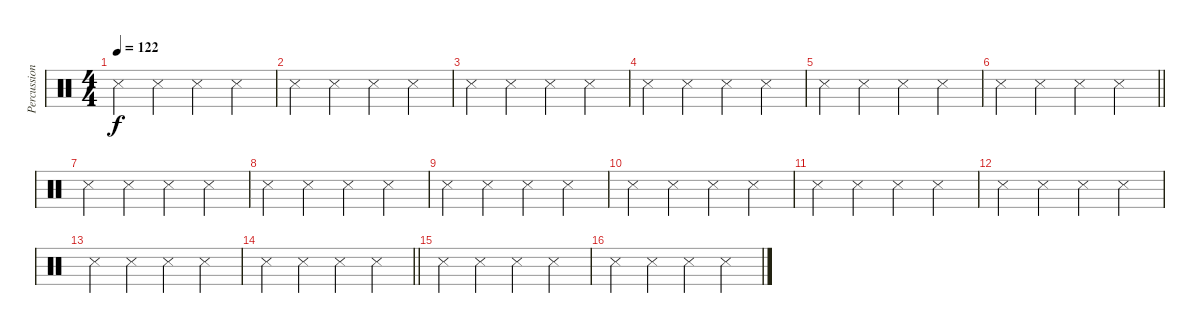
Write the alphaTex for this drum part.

\track ("Percussion" "Percussion") {instrument percussion}
\staff {score}
\articulation defaults
\ts (4 4)
\tempo 122
\clef neutral
\ks c "Snare (side stick) 3".4{dy f} "Metronome (hit)".4 "Metronome (hit)".4 "Metronome (hit)".4
|
"Snare (side stick) 3".4 "Metronome (hit)".4 "Metronome (hit)".4 "Metronome (hit)".4 |
"Snare (side stick) 3".4 "Metronome (hit)".4 "Metronome (hit)".4 "Metronome (hit)".4 |
"Snare (side stick) 3".4 "Metronome (hit)".4 "Metronome (hit)".4 "Metronome (hit)".4 |
"Snare (side stick) 3".4 "Metronome (hit)".4 "Metronome (hit)".4 "Metronome (hit)".4 |
\barLineRight lightlight "Snare (side stick) 3".4 "Metronome (hit)".4 "Metronome (hit)".4 "Metronome (hit)".4
|
"Snare (side stick) 3".4 "Metronome (hit)".4 "Metronome (hit)".4 "Metronome (hit)".4 |
"Snare (side stick) 3".4 "Metronome (hit)".4 "Metronome (hit)".4 "Metronome (hit)".4 |
"Snare (side stick) 3".4 "Metronome (hit)".4 "Metronome (hit)".4 "Metronome (hit)".4 |
"Snare (side stick) 3".4 "Metronome (hit)".4 "Metronome (hit)".4 "Metronome (hit)".4 |
"Snare (side stick) 3".4 "Metronome (hit)".4 "Metronome (hit)".4 "Metronome (hit)".4 |
"Snare (side stick) 3".4 "Metronome (hit)".4 "Metronome (hit)".4 "Metronome (hit)".4 |
"Snare (side stick) 3".4 "Metronome (hit)".4 "Metronome (hit)".4 "Metronome (hit)".4 |
\barLineRight lightlight "Snare (side stick) 3".4 "Metronome (hit)".4 "Metronome (hit)".4 "Metronome (hit)".4
|
"Snare (side stick) 3".4 "Metronome (hit)".4 "Metronome (hit)".4 "Metronome (hit)".4 |
"Snare (side stick) 3".4 "Metronome (hit)".4 "Metronome (hit)".4 "Metronome (hit)".4
